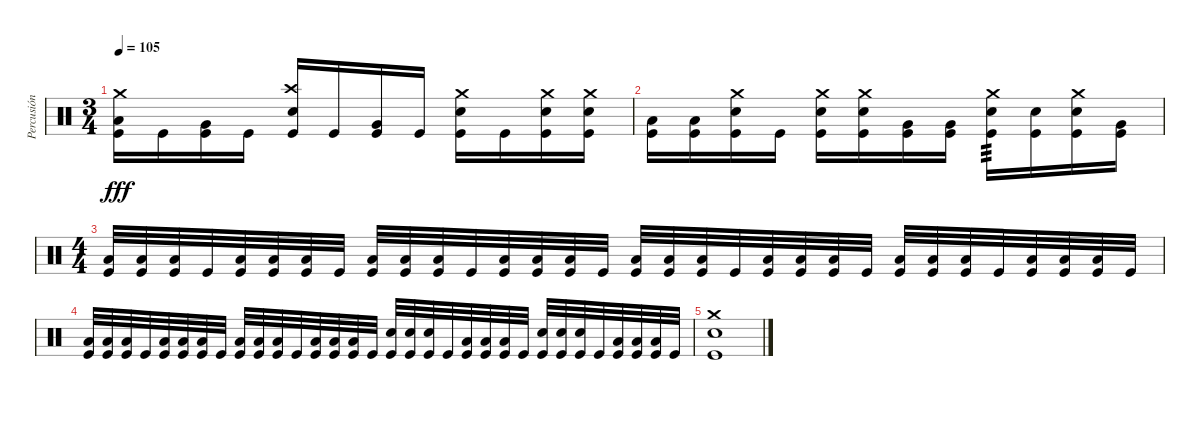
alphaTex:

\track ("Percusión" "Percusión") {instrument percussion}
\staff {score}
\articulation defaults
\ts (3 4)
\tempo 105
\clef neutral
\ks c
("Crash medium (hit)" "Low Floor Tom (hit)" "Kick (hit)").16{dy fff} "Kick (hit)".16 ("Very Low Tom (hit)" "Kick (hit)").16 "Kick (hit)".16 ("Crash high (hit)" "Snare (hit) 2" "Kick (hit)").16 "Kick (hit)".16 ("Very Low Tom (hit)" "Kick (hit)").16 "Kick (hit)".16 ("Crash medium (hit)" "Snare (hit) 2" "Kick (hit)").16 "Kick (hit)".16 ("Crash medium (hit)" "Snare (hit) 2" "Kick (hit)").16 ("Crash medium (hit)" "Snare (hit) 2" "Kick (hit)").16 |
("Low Floor Tom (hit)" "Kick (hit)").16 ("Low Floor Tom (hit)" "Kick (hit)").16 ("Crash medium (hit)" "Snare (hit) 2" "Kick (hit)").16 "Kick (hit)".16 ("Crash medium (hit)" "Snare (hit) 2" "Kick (hit)").16 ("Crash medium (hit)" "Snare (hit) 2" "Kick (hit)").16 ("Very Low Tom (hit)" "Kick (hit)").16 ("Very Low Tom (hit)" "Kick (hit)").16 ("Crash medium (hit)" "Snare (hit) 2" "Kick (hit)").16{tp 3} ("Snare (hit) 2" "Kick (hit)").16 ("Crash medium (hit)" "Snare (hit) 2" "Kick (hit)").16 ("Very Low Tom (hit)" "Kick (hit)").16 |
\ts (4 4)
("Low Floor Tom (hit)" "Kick (hit)").32 ("Low Floor Tom (hit)" "Kick (hit)").32 ("Low Floor Tom (hit)" "Kick (hit)").32 "Kick (hit)".32 ("Low Floor Tom (hit)" "Kick (hit)").32 ("Low Floor Tom (hit)" "Kick (hit)").32 ("Low Floor Tom (hit)" "Kick (hit)").32 "Kick (hit)".32 ("Low Floor Tom (hit)" "Kick (hit)").32 ("Low Floor Tom (hit)" "Kick (hit)").32 ("Low Floor Tom (hit)" "Kick (hit)").32 "Kick (hit)".32 ("Low Floor Tom (hit)" "Kick (hit)").32 ("Low Floor Tom (hit)" "Kick (hit)").32 ("Low Floor Tom (hit)" "Kick (hit)").32 "Kick (hit)".32 ("Low Floor Tom (hit)" "Kick (hit)").32 ("Low Floor Tom (hit)" "Kick (hit)").32 ("Low Floor Tom (hit)" "Kick (hit)").32 "Kick (hit)".32 ("Low Floor Tom (hit)" "Kick (hit)").32 ("Low Floor Tom (hit)" "Kick (hit)").32 ("Low Floor Tom (hit)" "Kick (hit)").32 "Kick (hit)".32 ("Low Floor Tom (hit)" "Kick (hit)").32 ("Low Floor Tom (hit)" "Kick (hit)").32 ("Low Floor Tom (hit)" "Kick (hit)").32 "Kick (hit)".32 ("Low Floor Tom (hit)" "Kick (hit)").32 ("Low Floor Tom (hit)" "Kick (hit)").32 ("Low Floor Tom (hit)" "Kick (hit)").32 "Kick (hit)".32 |
("Low Floor Tom (hit)" "Kick (hit)").32 ("Low Floor Tom (hit)" "Kick (hit)").32 ("Low Floor Tom (hit)" "Kick (hit)").32 "Kick (hit)".32 ("Low Floor Tom (hit)" "Kick (hit)").32 ("Low Floor Tom (hit)" "Kick (hit)").32 ("Low Floor Tom (hit)" "Kick (hit)").32 "Kick (hit)".32 ("Low Floor Tom (hit)" "Kick (hit)").32 ("Low Floor Tom (hit)" "Kick (hit)").32 ("Low Floor Tom (hit)" "Kick (hit)").32 "Kick (hit)".32 ("Low Floor Tom (hit)" "Kick (hit)").32 ("Low Floor Tom (hit)" "Kick (hit)").32 ("Low Floor Tom (hit)" "Kick (hit)").32 "Kick (hit)".32 ("Snare (hit) 2" "Kick (hit)").32 ("Snare (hit) 2" "Kick (hit)").32 ("Snare (hit) 2" "Kick (hit)").32 "Kick (hit)".32 ("Low Floor Tom (hit)" "Kick (hit)").32 ("Low Floor Tom (hit)" "Kick (hit)").32 ("Low Floor Tom (hit)" "Kick (hit)").32 "Kick (hit)".32 ("Snare (hit) 2" "Kick (hit)").32 ("Snare (hit) 2" "Kick (hit)").32 ("Snare (hit) 2" "Kick (hit)").32 "Kick (hit)".32 ("Low Floor Tom (hit)" "Kick (hit)").32 ("Low Floor Tom (hit)" "Kick (hit)").32 ("Low Floor Tom (hit)" "Kick (hit)").32 "Kick (hit)".32 |
("Crash medium (hit)" "Snare (hit) 2" "Kick (hit)").1
